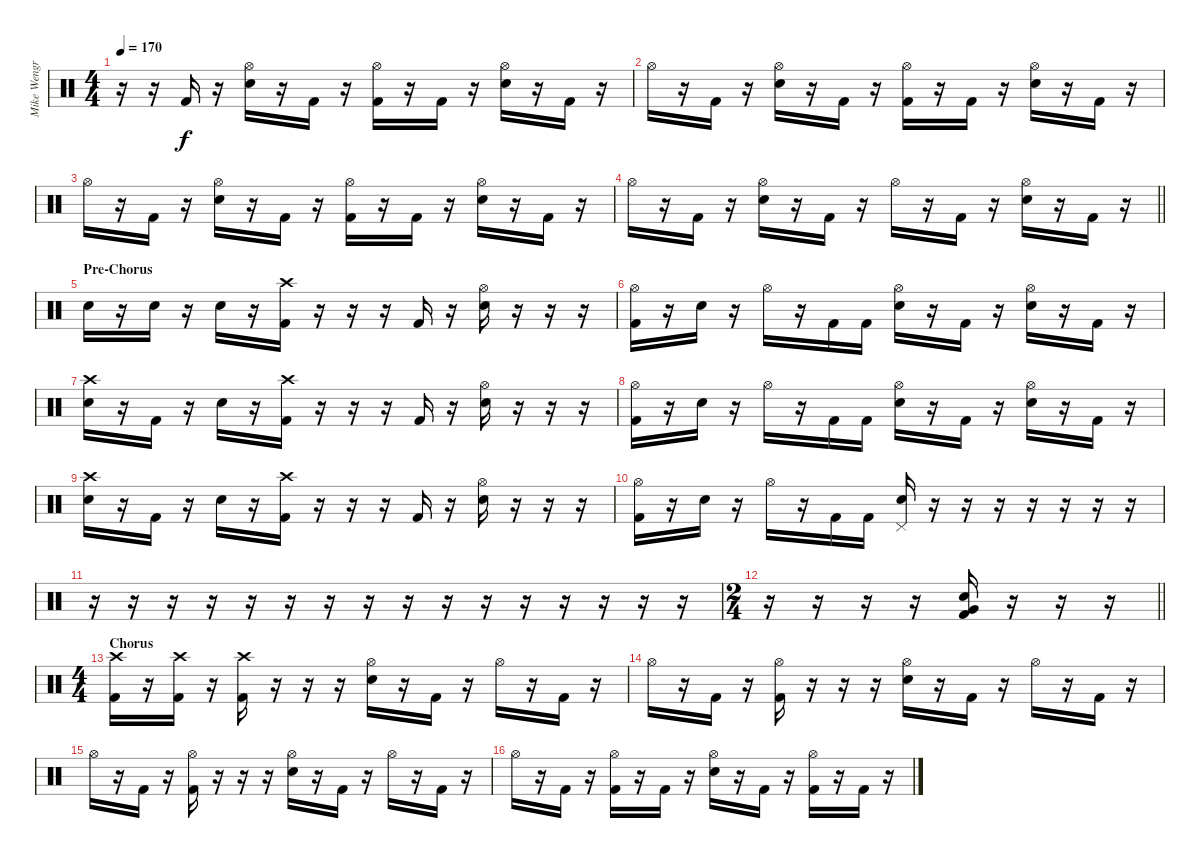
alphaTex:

\track ("Mike Wengren" "Mike Wengr") {instrument percussion}
\staff {score}
\articulation defaults
\ts (4 4)
\tempo 170
\clef neutral
\ks c
r.16{dy f} r.16 "Kick (hit) 2".16 r.16 ("Hi-Hat (open)" "Snare (hit) 2").16 r.16 "Kick (hit) 2".16 r.16 ("Hi-Hat (open)" "Kick (hit) 2").16 r.16 "Kick (hit) 2".16 r.16 ("Hi-Hat (open)" "Snare (hit) 2").16 r.16 "Kick (hit) 2".16 r.16 |
"Hi-Hat (open)".16 r.16 "Kick (hit) 2".16 r.16 ("Hi-Hat (open)" "Snare (hit) 2").16 r.16 "Kick (hit) 2".16 r.16 ("Hi-Hat (open)" "Kick (hit) 2").16 r.16 "Kick (hit) 2".16 r.16 ("Hi-Hat (open)" "Snare (hit) 2").16 r.16 "Kick (hit) 2".16 r.16 |
"Hi-Hat (open)".16 r.16 "Kick (hit) 2".16 r.16 ("Hi-Hat (open)" "Snare (hit) 2").16 r.16 "Kick (hit) 2".16 r.16 ("Hi-Hat (open)" "Kick (hit) 2").16 r.16 "Kick (hit) 2".16 r.16 ("Hi-Hat (open)" "Snare (hit) 2").16 r.16 "Kick (hit) 2".16 r.16 |
\barLineRight lightlight "Hi-Hat (open)".16
r.16 "Kick (hit) 2".16 r.16 ("Hi-Hat (open)" "Snare (hit) 2").16 r.16 "Kick (hit) 2".16 r.16 "Hi-Hat (open)".16 r.16 "Kick (hit) 2".16 r.16 ("Hi-Hat (open)" "Snare (hit) 2").16 r.16 "Kick (hit) 2".16 r.16 |
\section ("" "Pre-Chorus")
"Snare (hit) 2".16 r.16 "Snare (hit) 2".16 r.16 "Snare (hit) 2".16 r.16 ("Crash high (hit)" "Kick (hit) 2").16 r.16 r.16 r.16 "Kick (hit) 2".16 r.16 ("Hi-Hat (open)" "Snare (hit) 2").16 r.16 r.16 r.16 |
("Hi-Hat (open)" "Kick (hit) 2").16 r.16 "Snare (hit) 2".16 r.16 "Hi-Hat (open)".16 r.16 "Kick (hit) 2".16 "Kick (hit) 2".16 ("Hi-Hat (open)" "Snare (hit) 2").16 r.16 "Kick (hit) 2".16 r.16 ("Hi-Hat (open)" "Snare (hit) 2").16 r.16 "Kick (hit) 2".16 r.16 |
("Crash high (hit)" "Snare (hit) 2").16 r.16 "Kick (hit) 2".16 r.16 "Snare (hit) 2".16 r.16 ("Crash high (hit)" "Kick (hit) 2").16 r.16 r.16 r.16 "Kick (hit) 2".16 r.16 ("Hi-Hat (open)" "Snare (hit) 2").16 r.16 r.16 r.16 |
("Hi-Hat (open)" "Kick (hit) 2").16 r.16 "Snare (hit) 2".16 r.16 "Hi-Hat (open)".16 r.16 "Kick (hit) 2".16 "Kick (hit) 2".16 ("Hi-Hat (open)" "Snare (hit) 2").16 r.16 "Kick (hit) 2".16 r.16 ("Hi-Hat (open)" "Snare (hit) 2").16 r.16 "Kick (hit) 2".16 r.16 |
("Crash high (hit)" "Snare (hit) 2").16 r.16 "Kick (hit) 2".16 r.16 "Snare (hit) 2".16 r.16 ("Crash high (hit)" "Kick (hit) 2").16 r.16 r.16 r.16 "Kick (hit) 2".16 r.16 ("Hi-Hat (open)" "Snare (hit) 2").16 r.16 r.16 r.16 |
("Hi-Hat (open)" "Kick (hit) 2").16 r.16 "Snare (hit) 2".16 r.16 "Hi-Hat (open)".16 r.16 "Kick (hit) 2".16 "Kick (hit) 2".16 ("Pedal Hi-Hat (hit)" "Snare (hit) 2").16 r.16 r.16 r.16 r.16 r.16 r.16 r.16 |
r.16 r.16 r.16 r.16 r.16 r.16 r.16 r.16 r.16 r.16 r.16 r.16 r.16 r.16 r.16 r.16 |
\ts (2 4)
\barLineRight lightlight
r.16 r.16 r.16 r.16 ("Very Low Tom (hit)" "Snare (hit) 2" "Kick (hit) 2").16 r.16 r.16 r.16 |
\ts (4 4)
\section ("" "Chorus")
("Crash high (hit)" "Kick (hit) 2").16 r.16 ("Crash high (hit)" "Kick (hit) 2").16 r.16 ("Crash high (hit)" "Kick (hit) 2").16 r.16 r.16 r.16 ("Hi-Hat (open)" "Snare (hit) 2").16 r.16 "Kick (hit) 2".16 r.16 "Hi-Hat (open)".16 r.16 "Kick (hit) 2".16 r.16 |
"Hi-Hat (open)".16 r.16 "Kick (hit) 2".16 r.16 ("Hi-Hat (open)" "Kick (hit) 2").16 r.16 r.16 r.16 ("Hi-Hat (open)" "Snare (hit) 2").16 r.16 "Kick (hit) 2".16 r.16 "Hi-Hat (open)".16 r.16 "Kick (hit) 2".16 r.16 |
"Hi-Hat (open)".16 r.16 "Kick (hit) 2".16 r.16 ("Hi-Hat (open)" "Kick (hit) 2").16 r.16 r.16 r.16 ("Hi-Hat (open)" "Snare (hit) 2").16 r.16 "Kick (hit) 2".16 r.16 "Hi-Hat (open)".16 r.16 "Kick (hit) 2".16 r.16 |
"Hi-Hat (open)".16 r.16 "Kick (hit) 2".16 r.16 ("Hi-Hat (open)" "Kick (hit) 2").16 r.16 "Kick (hit) 2".16 r.16 ("Hi-Hat (open)" "Snare (hit) 2").16 r.16 "Kick (hit) 2".16 r.16 ("Hi-Hat (open)" "Kick (hit) 2").16 r.16 "Kick (hit) 2".16 r.16
